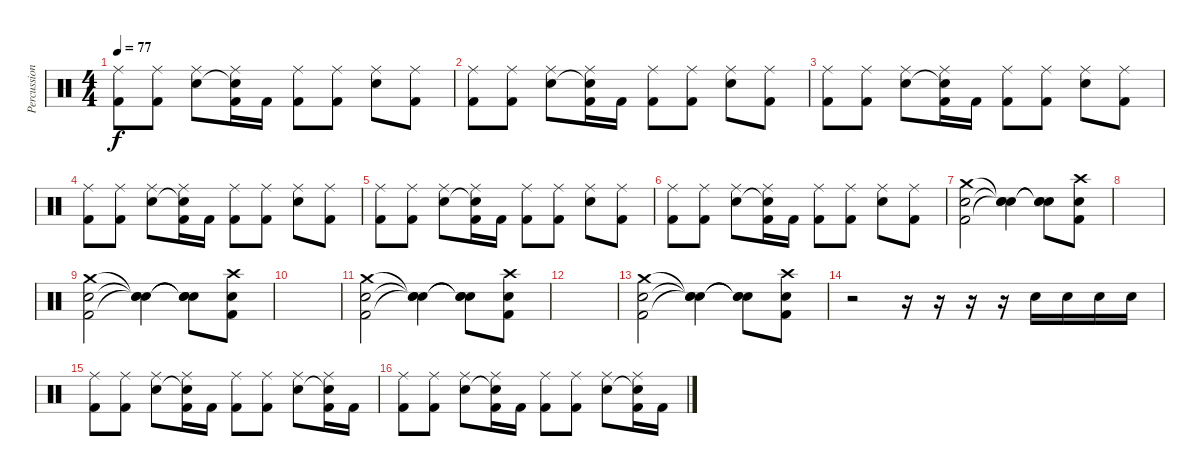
\track ("Percussion" "Percussion") {instrument percussion}
\staff {score}
\articulation defaults
\ts (4 4)
\tempo 77
\clef neutral
\ks c
("Ride (middle)" "Kick (hit) 2").8{dy f} ("Ride (middle)" "Kick (hit) 2").8 ("Ride (middle)" "Electric Snare (hit)").8 ("Ride (middle)" "Snare (hit)"{t} "Kick (hit) 2").16 "Kick (hit) 2".16 ("Ride (middle)" "Kick (hit) 2").8 ("Ride (middle)" "Kick (hit) 2").8 ("Ride (middle)" "Electric Snare (hit)").8 ("Ride (middle)" "Kick (hit) 2").8 |
("Ride (middle)" "Kick (hit) 2").8 ("Ride (middle)" "Kick (hit) 2").8 ("Ride (middle)" "Electric Snare (hit)").8 ("Ride (middle)" "Snare (hit)"{t} "Kick (hit) 2").16 "Kick (hit) 2".16 ("Ride (middle)" "Kick (hit) 2").8 ("Ride (middle)" "Kick (hit) 2").8 ("Ride (middle)" "Electric Snare (hit)").8 ("Ride (middle)" "Kick (hit) 2").8 |
("Ride (middle)" "Kick (hit) 2").8 ("Ride (middle)" "Kick (hit) 2").8 ("Ride (middle)" "Electric Snare (hit)").8 ("Ride (middle)" "Snare (hit)"{t} "Kick (hit) 2").16 "Kick (hit) 2".16 ("Ride (middle)" "Kick (hit) 2").8 ("Ride (middle)" "Kick (hit) 2").8 ("Ride (middle)" "Electric Snare (hit)").8 ("Ride (middle)" "Kick (hit) 2").8 |
("Ride (middle)" "Kick (hit) 2").8 ("Ride (middle)" "Kick (hit) 2").8 ("Ride (middle)" "Electric Snare (hit)").8 ("Ride (middle)" "Snare (hit)"{t} "Kick (hit) 2").16 "Kick (hit) 2".16 ("Ride (middle)" "Kick (hit) 2").8 ("Ride (middle)" "Kick (hit) 2").8 ("Ride (middle)" "Electric Snare (hit)").8 ("Ride (middle)" "Kick (hit) 2").8 |
("Ride (middle)" "Kick (hit) 2").8 ("Ride (middle)" "Kick (hit) 2").8 ("Ride (middle)" "Electric Snare (hit)").8 ("Ride (middle)" "Snare (hit)"{t} "Kick (hit) 2").16 "Kick (hit) 2".16 ("Ride (middle)" "Kick (hit) 2").8 ("Ride (middle)" "Kick (hit) 2").8 ("Ride (middle)" "Electric Snare (hit)").8 ("Ride (middle)" "Kick (hit) 2").8 |
("Ride (middle)" "Kick (hit) 2").8 ("Ride (middle)" "Kick (hit) 2").8 ("Ride (middle)" "Electric Snare (hit)").8 ("Ride (middle)" "Snare (hit)"{t} "Kick (hit) 2").16 "Kick (hit) 2".16 ("Ride (middle)" "Kick (hit) 2").8 ("Ride (middle)" "Kick (hit) 2").8 ("Ride (middle)" "Electric Snare (hit)").8 ("Ride (middle)" "Kick (hit) 2").8 |
("Crash medium (hit)" "Electric Snare (hit)" "Kick (hit) 2").2 ("Snare (hit)"{t} "Snare (hit)"{t} "Snare (hit)"{t}).4 ("Snare (hit)"{t} "Snare (hit)"{t} "Snare (hit)"{t}).8 ("Crash high (hit)" "Electric Snare (hit)" "Kick (hit) 2").8 |
|
("Crash medium (hit)" "Electric Snare (hit)" "Kick (hit) 2").2 ("Snare (hit)"{t} "Snare (hit)"{t} "Snare (hit)"{t}).4 ("Snare (hit)"{t} "Snare (hit)"{t} "Snare (hit)"{t}).8 ("Crash high (hit)" "Electric Snare (hit)" "Kick (hit) 2").8 |
|
("Crash medium (hit)" "Electric Snare (hit)" "Kick (hit) 2").2 ("Snare (hit)"{t} "Snare (hit)"{t} "Snare (hit)"{t}).4 ("Snare (hit)"{t} "Snare (hit)"{t} "Snare (hit)"{t}).8 ("Crash high (hit)" "Electric Snare (hit)" "Kick (hit) 2").8 |
|
("Crash medium (hit)" "Electric Snare (hit)" "Kick (hit) 2").2 ("Snare (hit)"{t} "Snare (hit)"{t} "Snare (hit)"{t}).4 ("Snare (hit)"{t} "Snare (hit)"{t} "Snare (hit)"{t}).8 ("Crash high (hit)" "Electric Snare (hit)" "Kick (hit) 2").8 |
r.2 r.16 r.16 r.16 r.16 "Electric Snare (hit)".16 "Electric Snare (hit)".16 "Electric Snare (hit)".16 "Electric Snare (hit)".16 |
("Ride (middle)" "Kick (hit) 2").8 ("Ride (middle)" "Kick (hit) 2").8 ("Ride (middle)" "Electric Snare (hit)").8 ("Ride (middle)" "Snare (hit)"{t} "Kick (hit) 2").16 "Kick (hit) 2".16 ("Ride (middle)" "Kick (hit) 2").8 ("Ride (middle)" "Kick (hit) 2").8 ("Ride (middle)" "Electric Snare (hit)").8 ("Ride (middle)" "Snare (hit)"{t} "Kick (hit) 2").16 "Kick (hit) 2".16 |
("Ride (middle)" "Kick (hit) 2").8 ("Ride (middle)" "Kick (hit) 2").8 ("Ride (middle)" "Electric Snare (hit)").8 ("Ride (middle)" "Snare (hit)"{t} "Kick (hit) 2").16 "Kick (hit) 2".16 ("Ride (middle)" "Kick (hit) 2").8 ("Ride (middle)" "Kick (hit) 2").8 ("Ride (middle)" "Electric Snare (hit)").8 ("Ride (middle)" "Snare (hit)"{t} "Kick (hit) 2").16 "Kick (hit) 2".16
